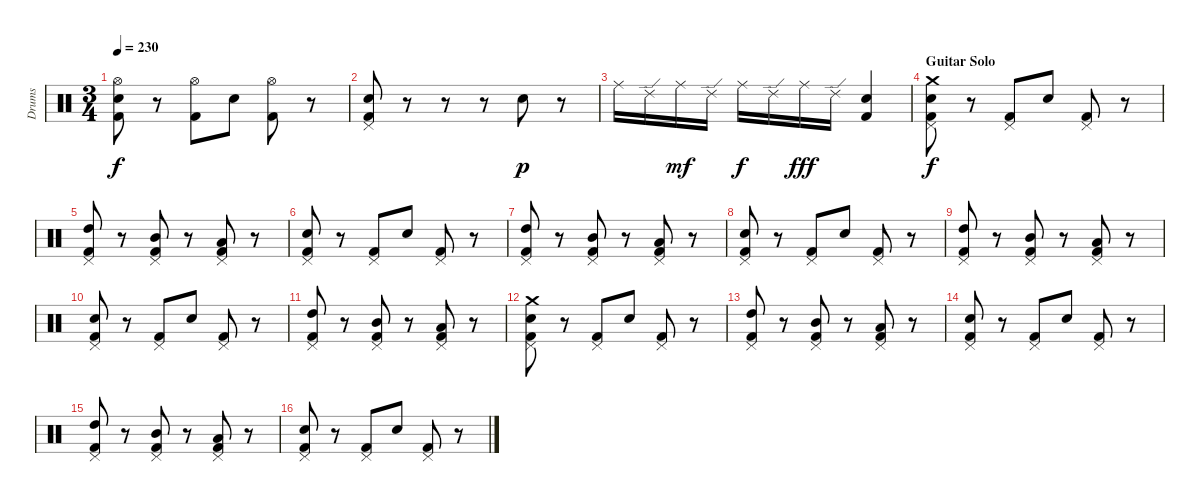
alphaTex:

\track ("Drums" "Drums") {instrument percussion}
\staff {score}
\articulation defaults
\ts (3 4)
\tempo 230
\clef neutral
\ks c
("Hi-Hat (open)" "Electric Snare (hit)" "Kick (hit) 2").8{dy f} r.8 ("Hi-Hat (open)" "Kick (hit) 2").8 "Electric Snare (hit)".8 ("Hi-Hat (open)" "Kick (hit) 2").8 r.8 |
("Pedal Hi-Hat (hit)" "Electric Snare (hit)" "Kick (hit) 2").8 r.8 r.8 r.8 "Electric Snare (hit)".8{dy p} r.8 |
"Ride (middle)".16 "Ride (edge) 2".16 "Ride (middle)".16{dy mf} "Ride (edge) 2".16 "Ride (middle)".16{dy f} "Ride (edge) 2".16 "Ride (middle)".16{dy fff} "Ride (edge) 2".16 ("Electric Snare (hit)" "Kick (hit) 2").4 |
\section ("" "Guitar Solo")
("Crash medium (hit)" "Pedal Hi-Hat (hit)" "Electric Snare (hit)" "Kick (hit) 2").8{dy f} r.8 ("Pedal Hi-Hat (hit)" "Kick (hit) 2").8 "Electric Snare (hit)".8 ("Pedal Hi-Hat (hit)" "Kick (hit) 2").8 r.8 |
("High Tom (hit)" "Pedal Hi-Hat (hit)" "Kick (hit) 2").8 r.8 ("Mid Tom (hit)" "Pedal Hi-Hat (hit)" "Kick (hit) 2").8 r.8 ("Pedal Hi-Hat (hit)" "Low Tom (hit)" "Kick (hit) 2").8 r.8 |
("Pedal Hi-Hat (hit)" "Electric Snare (hit)" "Kick (hit) 2").8 r.8 ("Pedal Hi-Hat (hit)" "Kick (hit) 2").8 "Electric Snare (hit)".8 ("Pedal Hi-Hat (hit)" "Kick (hit) 2").8 r.8 |
("High Tom (hit)" "Pedal Hi-Hat (hit)" "Kick (hit) 2").8 r.8 ("Mid Tom (hit)" "Pedal Hi-Hat (hit)" "Kick (hit) 2").8 r.8 ("Pedal Hi-Hat (hit)" "Low Tom (hit)" "Kick (hit) 2").8 r.8 |
("Pedal Hi-Hat (hit)" "Electric Snare (hit)" "Kick (hit) 2").8 r.8 ("Pedal Hi-Hat (hit)" "Kick (hit) 2").8 "Electric Snare (hit)".8 ("Pedal Hi-Hat (hit)" "Kick (hit) 2").8 r.8 |
("High Tom (hit)" "Pedal Hi-Hat (hit)" "Kick (hit) 2").8 r.8 ("Mid Tom (hit)" "Pedal Hi-Hat (hit)" "Kick (hit) 2").8 r.8 ("Pedal Hi-Hat (hit)" "Low Tom (hit)" "Kick (hit) 2").8 r.8 |
("Pedal Hi-Hat (hit)" "Electric Snare (hit)" "Kick (hit) 2").8 r.8 ("Pedal Hi-Hat (hit)" "Kick (hit) 2").8 "Electric Snare (hit)".8 ("Pedal Hi-Hat (hit)" "Kick (hit) 2").8 r.8 |
("High Tom (hit)" "Pedal Hi-Hat (hit)" "Kick (hit) 2").8 r.8 ("Mid Tom (hit)" "Pedal Hi-Hat (hit)" "Kick (hit) 2").8 r.8 ("Pedal Hi-Hat (hit)" "Low Tom (hit)" "Kick (hit) 2").8 r.8 |
("Crash medium (hit)" "Pedal Hi-Hat (hit)" "Electric Snare (hit)" "Kick (hit) 2").8 r.8 ("Pedal Hi-Hat (hit)" "Kick (hit) 2").8 "Electric Snare (hit)".8 ("Pedal Hi-Hat (hit)" "Kick (hit) 2").8 r.8 |
("High Tom (hit)" "Pedal Hi-Hat (hit)" "Kick (hit) 2").8 r.8 ("Mid Tom (hit)" "Pedal Hi-Hat (hit)" "Kick (hit) 2").8 r.8 ("Pedal Hi-Hat (hit)" "Low Tom (hit)" "Kick (hit) 2").8 r.8 |
("Pedal Hi-Hat (hit)" "Electric Snare (hit)" "Kick (hit) 2").8 r.8 ("Pedal Hi-Hat (hit)" "Kick (hit) 2").8 "Electric Snare (hit)".8 ("Pedal Hi-Hat (hit)" "Kick (hit) 2").8 r.8 |
("High Tom (hit)" "Pedal Hi-Hat (hit)" "Kick (hit) 2").8 r.8 ("Mid Tom (hit)" "Pedal Hi-Hat (hit)" "Kick (hit) 2").8 r.8 ("Pedal Hi-Hat (hit)" "Low Tom (hit)" "Kick (hit) 2").8 r.8 |
("Pedal Hi-Hat (hit)" "Electric Snare (hit)" "Kick (hit) 2").8 r.8 ("Pedal Hi-Hat (hit)" "Kick (hit) 2").8 "Electric Snare (hit)".8 ("Pedal Hi-Hat (hit)" "Kick (hit) 2").8 r.8
